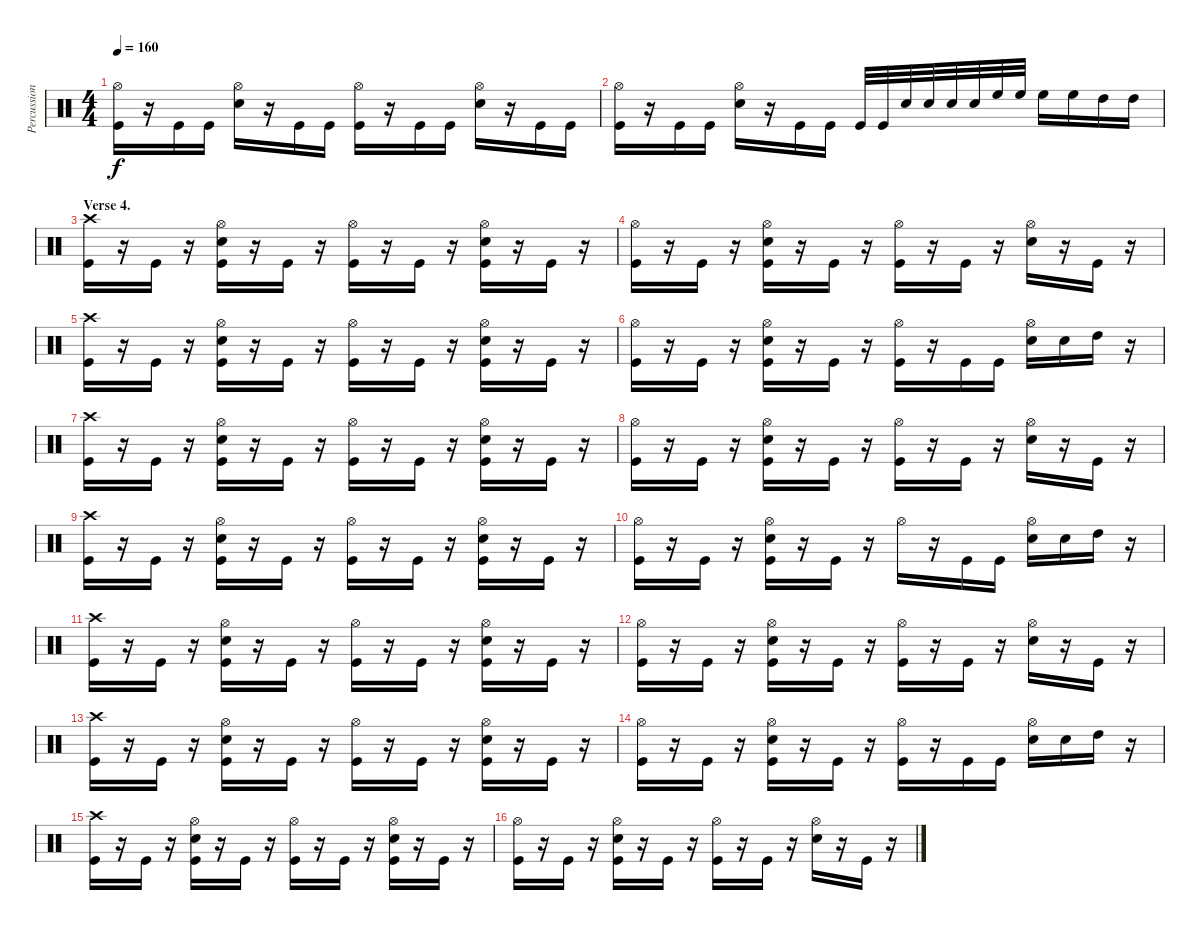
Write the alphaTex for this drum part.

\track ("Percussion" "Percussion") {instrument percussion}
\staff {score}
\articulation defaults
\ts (4 4)
\tempo 160
\clef neutral
\ks c
("Hi-Hat (open)" "Kick (hit)").16{dy f} r.16 "Kick (hit)".16 "Kick (hit)".16 ("Hi-Hat (open)" "Electric Snare (hit)").16 r.16 "Kick (hit)".16 "Kick (hit)".16 ("Hi-Hat (open)" "Kick (hit)").16 r.16 "Kick (hit)".16 "Kick (hit)".16 ("Hi-Hat (open)" "Electric Snare (hit)").16 r.16 "Kick (hit)".16 "Kick (hit)".16 |
("Hi-Hat (open)" "Kick (hit)").16 r.16 "Kick (hit)".16 "Kick (hit)".16 ("Hi-Hat (open)" "Electric Snare (hit)").16 r.16 "Kick (hit)".16 "Kick (hit)".16 "Kick (hit)".32 "Kick (hit)".32 "Electric Snare (hit)".32 "Electric Snare (hit)".32 "Electric Snare (hit)".32 "Electric Snare (hit)".32 "High Floor Tom (hit)".32 "High Floor Tom (hit)".32 "High Floor Tom (hit)".16 "High Floor Tom (hit)".16 "High Tom (hit)".16 "High Tom (hit)".16 |
\section ("" "Verse 4.")
("Crash high (hit)" "Kick (hit)").16 r.16 "Kick (hit)".16 r.16 ("Hi-Hat (open)" "Electric Snare (hit)" "Kick (hit)").16 r.16 "Kick (hit)".16 r.16 ("Hi-Hat (open)" "Kick (hit)").16 r.16 "Kick (hit)".16 r.16 ("Hi-Hat (open)" "Electric Snare (hit)" "Kick (hit)").16 r.16 "Kick (hit)".16 r.16 |
("Hi-Hat (open)" "Kick (hit)").16 r.16 "Kick (hit)".16 r.16 ("Hi-Hat (open)" "Electric Snare (hit)" "Kick (hit)").16 r.16 "Kick (hit)".16 r.16 ("Hi-Hat (open)" "Kick (hit)").16 r.16 "Kick (hit)".16 r.16 ("Hi-Hat (open)" "Electric Snare (hit)").16 r.16 "Kick (hit)".16 r.16 |
("Crash high (hit)" "Kick (hit)").16 r.16 "Kick (hit)".16 r.16 ("Hi-Hat (open)" "Electric Snare (hit)" "Kick (hit)").16 r.16 "Kick (hit)".16 r.16 ("Hi-Hat (open)" "Kick (hit)").16 r.16 "Kick (hit)".16 r.16 ("Hi-Hat (open)" "Electric Snare (hit)" "Kick (hit)").16 r.16 "Kick (hit)".16 r.16 |
("Hi-Hat (open)" "Kick (hit)").16 r.16 "Kick (hit)".16 r.16 ("Hi-Hat (open)" "Electric Snare (hit)" "Kick (hit)").16 r.16 "Kick (hit)".16 r.16 ("Hi-Hat (open)" "Kick (hit)").16 r.16 "Kick (hit)".16 "Kick (hit)".16 ("Hi-Hat (open)" "Electric Snare (hit)").16 "Electric Snare (hit)".16 "High Tom (hit)".16 r.16 |
("Crash high (hit)" "Kick (hit)").16 r.16 "Kick (hit)".16 r.16 ("Hi-Hat (open)" "Electric Snare (hit)" "Kick (hit)").16 r.16 "Kick (hit)".16 r.16 ("Hi-Hat (open)" "Kick (hit)").16 r.16 "Kick (hit)".16 r.16 ("Hi-Hat (open)" "Electric Snare (hit)" "Kick (hit)").16 r.16 "Kick (hit)".16 r.16 |
("Hi-Hat (open)" "Kick (hit)").16 r.16 "Kick (hit)".16 r.16 ("Hi-Hat (open)" "Electric Snare (hit)" "Kick (hit)").16 r.16 "Kick (hit)".16 r.16 ("Hi-Hat (open)" "Kick (hit)").16 r.16 "Kick (hit)".16 r.16 ("Hi-Hat (open)" "Electric Snare (hit)").16 r.16 "Kick (hit)".16 r.16 |
("Crash high (hit)" "Kick (hit)").16 r.16 "Kick (hit)".16 r.16 ("Hi-Hat (open)" "Electric Snare (hit)" "Kick (hit)").16 r.16 "Kick (hit)".16 r.16 ("Hi-Hat (open)" "Kick (hit)").16 r.16 "Kick (hit)".16 r.16 ("Hi-Hat (open)" "Electric Snare (hit)" "Kick (hit)").16 r.16 "Kick (hit)".16 r.16 |
("Hi-Hat (open)" "Kick (hit)").16 r.16 "Kick (hit)".16 r.16 ("Hi-Hat (open)" "Electric Snare (hit)" "Kick (hit)").16 r.16 "Kick (hit)".16 r.16 "Hi-Hat (open)".16 r.16 "Kick (hit)".16 "Kick (hit)".16 ("Hi-Hat (open)" "Electric Snare (hit)").16 "Electric Snare (hit)".16 "High Tom (hit)".16 r.16 |
("Crash high (hit)" "Kick (hit)").16 r.16 "Kick (hit)".16 r.16 ("Hi-Hat (open)" "Electric Snare (hit)" "Kick (hit)").16 r.16 "Kick (hit)".16 r.16 ("Hi-Hat (open)" "Kick (hit)").16 r.16 "Kick (hit)".16 r.16 ("Hi-Hat (open)" "Electric Snare (hit)" "Kick (hit)").16 r.16 "Kick (hit)".16 r.16 |
("Hi-Hat (open)" "Kick (hit)").16 r.16 "Kick (hit)".16 r.16 ("Hi-Hat (open)" "Electric Snare (hit)" "Kick (hit)").16 r.16 "Kick (hit)".16 r.16 ("Hi-Hat (open)" "Kick (hit)").16 r.16 "Kick (hit)".16 r.16 ("Hi-Hat (open)" "Electric Snare (hit)").16 r.16 "Kick (hit)".16 r.16 |
("Crash high (hit)" "Kick (hit)").16 r.16 "Kick (hit)".16 r.16 ("Hi-Hat (open)" "Electric Snare (hit)" "Kick (hit)").16 r.16 "Kick (hit)".16 r.16 ("Hi-Hat (open)" "Kick (hit)").16 r.16 "Kick (hit)".16 r.16 ("Hi-Hat (open)" "Electric Snare (hit)" "Kick (hit)").16 r.16 "Kick (hit)".16 r.16 |
("Hi-Hat (open)" "Kick (hit)").16 r.16 "Kick (hit)".16 r.16 ("Hi-Hat (open)" "Electric Snare (hit)" "Kick (hit)").16 r.16 "Kick (hit)".16 r.16 ("Hi-Hat (open)" "Kick (hit)").16 r.16 "Kick (hit)".16 "Kick (hit)".16 ("Hi-Hat (open)" "Electric Snare (hit)").16 "Electric Snare (hit)".16 "High Tom (hit)".16 r.16 |
("Crash high (hit)" "Kick (hit)").16 r.16 "Kick (hit)".16 r.16 ("Hi-Hat (open)" "Electric Snare (hit)" "Kick (hit)").16 r.16 "Kick (hit)".16 r.16 ("Hi-Hat (open)" "Kick (hit)").16 r.16 "Kick (hit)".16 r.16 ("Hi-Hat (open)" "Electric Snare (hit)" "Kick (hit)").16 r.16 "Kick (hit)".16 r.16 |
("Hi-Hat (open)" "Kick (hit)").16 r.16 "Kick (hit)".16 r.16 ("Hi-Hat (open)" "Electric Snare (hit)" "Kick (hit)").16 r.16 "Kick (hit)".16 r.16 ("Hi-Hat (open)" "Kick (hit)").16 r.16 "Kick (hit)".16 r.16 ("Hi-Hat (open)" "Electric Snare (hit)").16 r.16 "Kick (hit)".16 r.16
